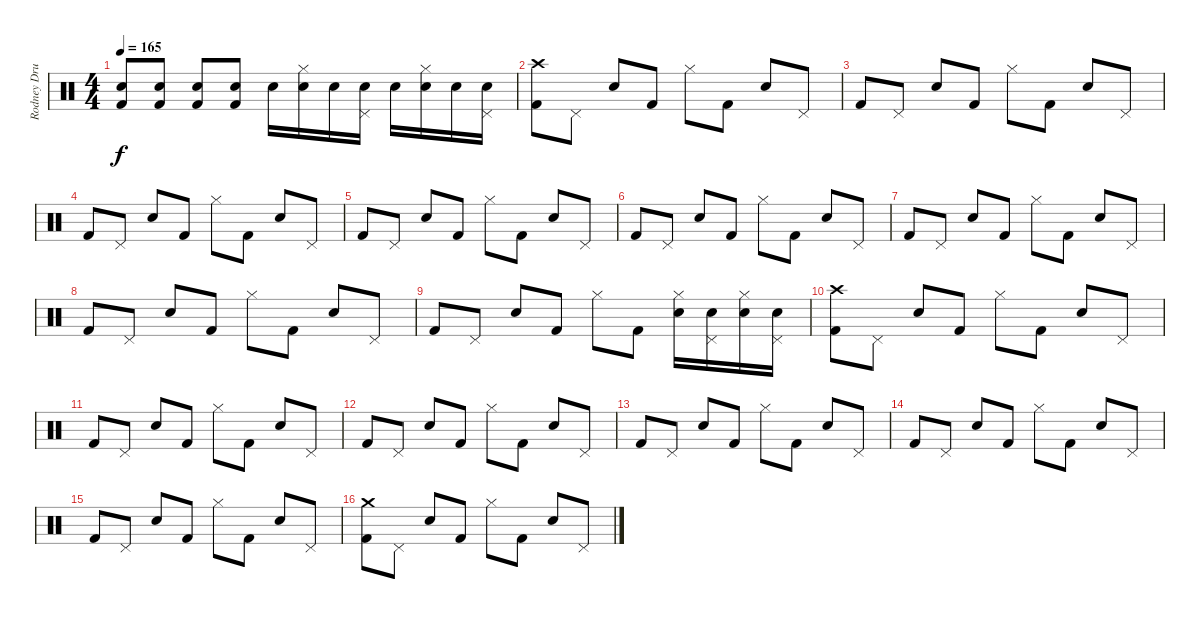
\track ("Rodney Drums" "Rodney Dru") {instrument percussion}
\staff {score}
\articulation defaults
\ts (4 4)
\tempo 165
\clef neutral
\ks c
("Electric Snare (hit)" "Kick (hit) 2").8{dy f} ("Electric Snare (hit)" "Kick (hit) 2").8 ("Electric Snare (hit)" "Kick (hit) 2").8 ("Electric Snare (hit)" "Kick (hit) 2").8 "Electric Snare (hit)".16 ("Electric Snare (hit)" "Hi-Hat (closed)").16 "Electric Snare (hit)".16 ("Electric Snare (hit)" "Pedal Hi-Hat (hit)").16 "Electric Snare (hit)".16 ("Electric Snare (hit)" "Hi-Hat (closed)").16 "Electric Snare (hit)".16 ("Electric Snare (hit)" "Pedal Hi-Hat (hit)").16 |
("Crash high (hit)" "Kick (hit) 2").8 "Pedal Hi-Hat (hit)".8 "Electric Snare (hit)".8 "Kick (hit) 2".8 "Hi-Hat (closed)".8 "Kick (hit) 2".8 "Electric Snare (hit)".8 "Pedal Hi-Hat (hit)".8 |
"Kick (hit) 2".8 "Pedal Hi-Hat (hit)".8 "Electric Snare (hit)".8 "Kick (hit) 2".8 "Hi-Hat (closed)".8 "Kick (hit) 2".8 "Electric Snare (hit)".8 "Pedal Hi-Hat (hit)".8 |
"Kick (hit) 2".8 "Pedal Hi-Hat (hit)".8 "Electric Snare (hit)".8 "Kick (hit) 2".8 "Hi-Hat (closed)".8 "Kick (hit) 2".8 "Electric Snare (hit)".8 "Pedal Hi-Hat (hit)".8 |
"Kick (hit) 2".8 "Pedal Hi-Hat (hit)".8 "Electric Snare (hit)".8 "Kick (hit) 2".8 "Hi-Hat (closed)".8 "Kick (hit) 2".8 "Electric Snare (hit)".8 "Pedal Hi-Hat (hit)".8 |
"Kick (hit) 2".8 "Pedal Hi-Hat (hit)".8 "Electric Snare (hit)".8 "Kick (hit) 2".8 "Hi-Hat (closed)".8 "Kick (hit) 2".8 "Electric Snare (hit)".8 "Pedal Hi-Hat (hit)".8 |
"Kick (hit) 2".8 "Pedal Hi-Hat (hit)".8 "Electric Snare (hit)".8 "Kick (hit) 2".8 "Hi-Hat (closed)".8 "Kick (hit) 2".8 "Electric Snare (hit)".8 "Pedal Hi-Hat (hit)".8 |
"Kick (hit) 2".8 "Pedal Hi-Hat (hit)".8 "Electric Snare (hit)".8 "Kick (hit) 2".8 "Hi-Hat (closed)".8 "Kick (hit) 2".8 "Electric Snare (hit)".8 "Pedal Hi-Hat (hit)".8 |
"Kick (hit) 2".8 "Pedal Hi-Hat (hit)".8 "Electric Snare (hit)".8 "Kick (hit) 2".8 "Hi-Hat (closed)".8 "Kick (hit) 2".8 ("Electric Snare (hit)" "Hi-Hat (closed)").16 ("Electric Snare (hit)" "Pedal Hi-Hat (hit)").16 ("Electric Snare (hit)" "Hi-Hat (closed)").16 ("Electric Snare (hit)" "Pedal Hi-Hat (hit)").16 |
("Crash high (hit)" "Kick (hit) 2").8 "Pedal Hi-Hat (hit)".8 "Electric Snare (hit)".8 "Kick (hit) 2".8 "Hi-Hat (closed)".8 "Kick (hit) 2".8 "Electric Snare (hit)".8 "Pedal Hi-Hat (hit)".8 |
"Kick (hit) 2".8 "Pedal Hi-Hat (hit)".8 "Electric Snare (hit)".8 "Kick (hit) 2".8 "Hi-Hat (closed)".8 "Kick (hit) 2".8 "Electric Snare (hit)".8 "Pedal Hi-Hat (hit)".8 |
"Kick (hit) 2".8 "Pedal Hi-Hat (hit)".8 "Electric Snare (hit)".8 "Kick (hit) 2".8 "Hi-Hat (closed)".8 "Kick (hit) 2".8 "Electric Snare (hit)".8 "Pedal Hi-Hat (hit)".8 |
"Kick (hit) 2".8 "Pedal Hi-Hat (hit)".8 "Electric Snare (hit)".8 "Kick (hit) 2".8 "Hi-Hat (closed)".8 "Kick (hit) 2".8 "Electric Snare (hit)".8 "Pedal Hi-Hat (hit)".8 |
"Kick (hit) 2".8 "Pedal Hi-Hat (hit)".8 "Electric Snare (hit)".8 "Kick (hit) 2".8 "Hi-Hat (closed)".8 "Kick (hit) 2".8 "Electric Snare (hit)".8 "Pedal Hi-Hat (hit)".8 |
"Kick (hit) 2".8 "Pedal Hi-Hat (hit)".8 "Electric Snare (hit)".8 "Kick (hit) 2".8 "Hi-Hat (closed)".8 "Kick (hit) 2".8 "Electric Snare (hit)".8 "Pedal Hi-Hat (hit)".8 |
("Crash medium (hit)" "Kick (hit) 2").8 "Pedal Hi-Hat (hit)".8 "Electric Snare (hit)".8 "Kick (hit) 2".8 "Hi-Hat (closed)".8 "Kick (hit) 2".8 "Electric Snare (hit)".8 "Pedal Hi-Hat (hit)".8
